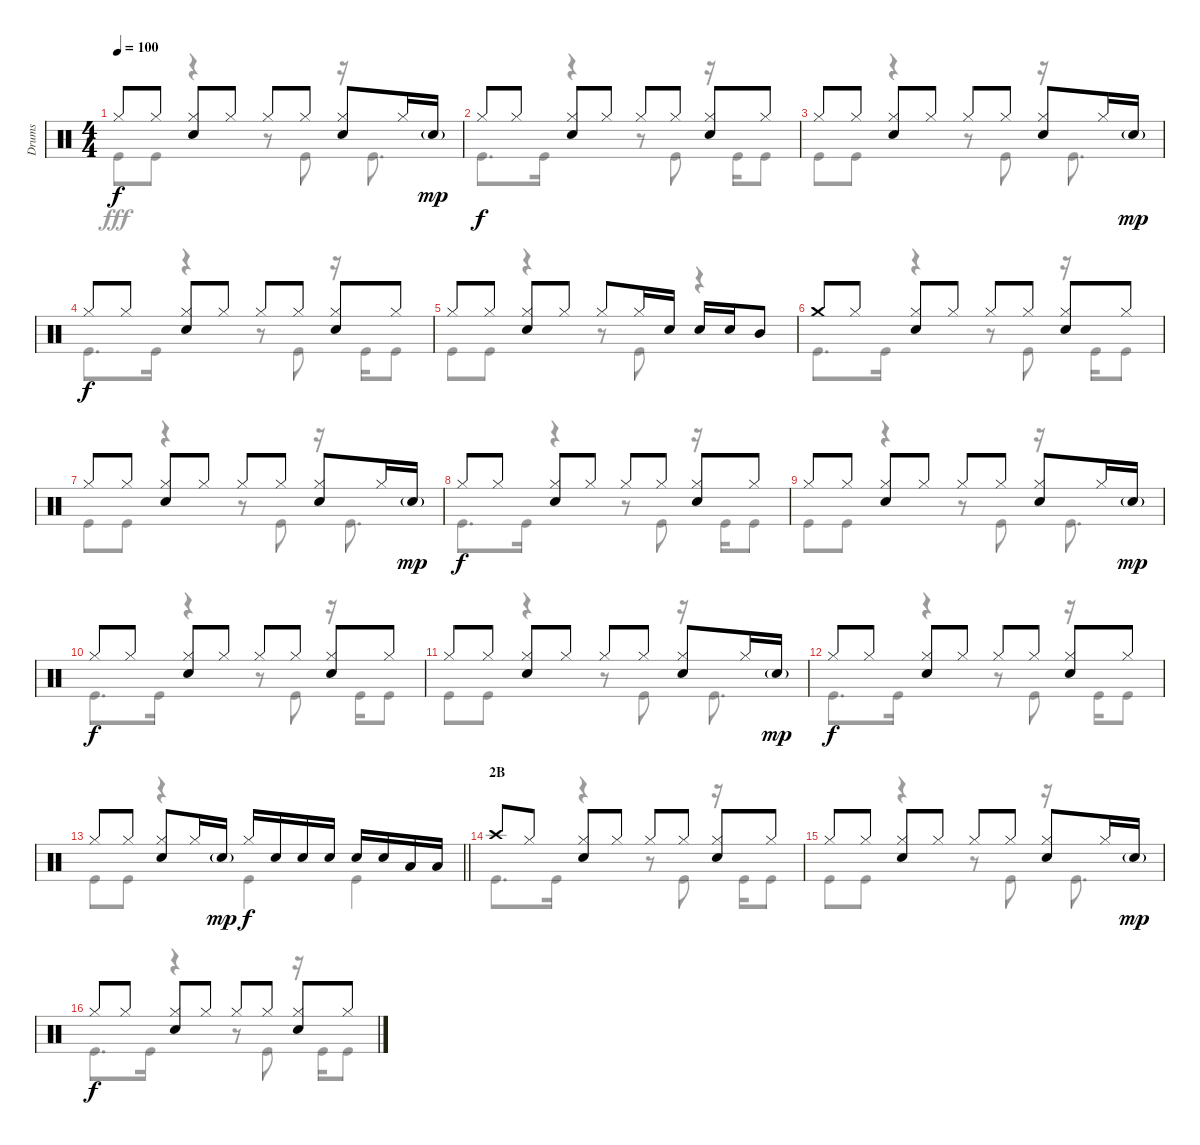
\track ("Drums" "Drums") {instrument percussion}
\staff {score}
\articulation defaults
\voice
\ts (4 4)
\tempo 100
\clef neutral
\ks c "Hi-Hat (closed)".8{dy f} "Hi-Hat (closed)".8
("Hi-Hat (closed)" "Snare (hit) 2").8 "Hi-Hat (closed)".8 "Hi-Hat (closed)".8 "Hi-Hat (closed)".8 ("Hi-Hat (closed)" "Snare (hit) 2").8 "Hi-Hat (closed)".16 "Snare (hit) 2"{g}.16{dy mp} |
"Hi-Hat (closed)".8{dy f} "Hi-Hat (closed)".8 ("Hi-Hat (closed)" "Snare (hit) 2").8 "Hi-Hat (closed)".8 "Hi-Hat (closed)".8 "Hi-Hat (closed)".8 ("Hi-Hat (closed)" "Snare (hit) 2").8 "Hi-Hat (closed)".8 |
"Hi-Hat (closed)".8 "Hi-Hat (closed)".8 ("Hi-Hat (closed)" "Snare (hit) 2").8 "Hi-Hat (closed)".8 "Hi-Hat (closed)".8 "Hi-Hat (closed)".8 ("Hi-Hat (closed)" "Snare (hit) 2").8 "Hi-Hat (closed)".16 "Snare (hit) 2"{g}.16{dy mp} |
"Hi-Hat (closed)".8{dy f} "Hi-Hat (closed)".8 ("Hi-Hat (closed)" "Snare (hit) 2").8 "Hi-Hat (closed)".8 "Hi-Hat (closed)".8 "Hi-Hat (closed)".8 ("Hi-Hat (closed)" "Snare (hit) 2").8 "Hi-Hat (closed)".8 |
"Hi-Hat (closed)".8 "Hi-Hat (closed)".8 ("Hi-Hat (closed)" "Snare (hit) 2").8 "Hi-Hat (closed)".8 "Hi-Hat (closed)".8 "Hi-Hat (closed)".16 "Snare (hit) 2".16 "Snare (hit) 2".16 "Snare (hit) 2".16 "Mid Tom (hit)".8 |
"Crash medium (hit)".8 "Hi-Hat (closed)".8 ("Hi-Hat (closed)" "Snare (hit) 2").8 "Hi-Hat (closed)".8 "Hi-Hat (closed)".8 "Hi-Hat (closed)".8 ("Hi-Hat (closed)" "Snare (hit) 2").8 "Hi-Hat (closed)".8 |
"Hi-Hat (closed)".8 "Hi-Hat (closed)".8 ("Hi-Hat (closed)" "Snare (hit) 2").8 "Hi-Hat (closed)".8 "Hi-Hat (closed)".8 "Hi-Hat (closed)".8 ("Hi-Hat (closed)" "Snare (hit) 2").8 "Hi-Hat (closed)".16 "Snare (hit) 2"{g}.16{dy mp} |
"Hi-Hat (closed)".8{dy f} "Hi-Hat (closed)".8 ("Hi-Hat (closed)" "Snare (hit) 2").8 "Hi-Hat (closed)".8 "Hi-Hat (closed)".8 "Hi-Hat (closed)".8 ("Hi-Hat (closed)" "Snare (hit) 2").8 "Hi-Hat (closed)".8 |
"Hi-Hat (closed)".8 "Hi-Hat (closed)".8 ("Hi-Hat (closed)" "Snare (hit) 2").8 "Hi-Hat (closed)".8 "Hi-Hat (closed)".8 "Hi-Hat (closed)".8 ("Hi-Hat (closed)" "Snare (hit) 2").8 "Hi-Hat (closed)".16 "Snare (hit) 2"{g}.16{dy mp} |
"Hi-Hat (closed)".8{dy f} "Hi-Hat (closed)".8 ("Hi-Hat (closed)" "Snare (hit) 2").8 "Hi-Hat (closed)".8 "Hi-Hat (closed)".8 "Hi-Hat (closed)".8 ("Hi-Hat (closed)" "Snare (hit) 2").8 "Hi-Hat (closed)".8 |
"Hi-Hat (closed)".8 "Hi-Hat (closed)".8 ("Hi-Hat (closed)" "Snare (hit) 2").8 "Hi-Hat (closed)".8 "Hi-Hat (closed)".8 "Hi-Hat (closed)".8 ("Hi-Hat (closed)" "Snare (hit) 2").8 "Hi-Hat (closed)".16 "Snare (hit) 2"{g}.16{dy mp} |
"Hi-Hat (closed)".8{dy f} "Hi-Hat (closed)".8 ("Hi-Hat (closed)" "Snare (hit) 2").8 "Hi-Hat (closed)".8 "Hi-Hat (closed)".8 "Hi-Hat (closed)".8 ("Hi-Hat (closed)" "Snare (hit) 2").8 "Hi-Hat (closed)".8 |
\barLineRight lightlight "Hi-Hat (closed)".8 "Hi-Hat (closed)".8
("Hi-Hat (closed)" "Snare (hit) 2").8 "Hi-Hat (closed)".16 "Snare (hit) 2"{g}.16{dy mp} "Hi-Hat (closed)".16{dy f} "Snare (hit) 2".16 "Snare (hit) 2".16 "Snare (hit) 2".16 "Snare (hit) 2".16 "Snare (hit) 2".16 "Low Tom (hit)".16 "Low Tom (hit)".16 |
\section ("" "2B")
"Crash high (hit)".8 "Hi-Hat (closed)".8 ("Hi-Hat (closed)" "Snare (hit) 2").8 "Hi-Hat (closed)".8 "Hi-Hat (closed)".8 "Hi-Hat (closed)".8 ("Hi-Hat (closed)" "Snare (hit) 2").8 "Hi-Hat (closed)".8 |
"Hi-Hat (closed)".8 "Hi-Hat (closed)".8 ("Hi-Hat (closed)" "Snare (hit) 2").8 "Hi-Hat (closed)".8 "Hi-Hat (closed)".8 "Hi-Hat (closed)".8 ("Hi-Hat (closed)" "Snare (hit) 2").8 "Hi-Hat (closed)".16 "Snare (hit) 2"{g}.16{dy mp} |
"Hi-Hat (closed)".8{dy f} "Hi-Hat (closed)".8 ("Hi-Hat (closed)" "Snare (hit) 2").8 "Hi-Hat (closed)".8 "Hi-Hat (closed)".8 "Hi-Hat (closed)".8 ("Hi-Hat (closed)" "Snare (hit) 2").8 "Hi-Hat (closed)".8
\voice
\clef neutral
\ottava regular
\simile none
\ks c "Kick (hit)".8{dy fff} "Kick (hit)".8
r.4 r.8 "Kick (hit)".8 r.16 "Kick (hit)".8{d} |
"Kick (hit)".8{d} "Kick (hit)".16 r.4 r.8 "Kick (hit)".8 r.16 "Kick (hit)".16 "Kick (hit)".8 |
"Kick (hit)".8 "Kick (hit)".8 r.4 r.8 "Kick (hit)".8 r.16 "Kick (hit)".8{d} |
"Kick (hit)".8{d} "Kick (hit)".16 r.4 r.8 "Kick (hit)".8 r.16 "Kick (hit)".16 "Kick (hit)".8 |
"Kick (hit)".8 "Kick (hit)".8 r.4 r.8 "Kick (hit)".8 r.4 |
"Kick (hit)".8{d} "Kick (hit)".16 r.4 r.8 "Kick (hit)".8 r.16 "Kick (hit)".16 "Kick (hit)".8 |
"Kick (hit)".8 "Kick (hit)".8 r.4 r.8 "Kick (hit)".8 r.16 "Kick (hit)".8{d} |
"Kick (hit)".8{d} "Kick (hit)".16 r.4 r.8 "Kick (hit)".8 r.16 "Kick (hit)".16 "Kick (hit)".8 |
"Kick (hit)".8 "Kick (hit)".8 r.4 r.8 "Kick (hit)".8 r.16 "Kick (hit)".8{d} |
"Kick (hit)".8{d} "Kick (hit)".16 r.4 r.8 "Kick (hit)".8 r.16 "Kick (hit)".16 "Kick (hit)".8 |
"Kick (hit)".8 "Kick (hit)".8 r.4 r.8 "Kick (hit)".8 r.16 "Kick (hit)".8{d} |
"Kick (hit)".8{d} "Kick (hit)".16 r.4 r.8 "Kick (hit)".8 r.16 "Kick (hit)".16 "Kick (hit)".8 |
\barLineRight lightlight "Kick (hit)".8 "Kick (hit)".8
r.4 "Kick (hit)".4 "Kick (hit)".4 |
"Kick (hit)".8{d} "Kick (hit)".16 r.4 r.8 "Kick (hit)".8 r.16 "Kick (hit)".16 "Kick (hit)".8 |
"Kick (hit)".8 "Kick (hit)".8 r.4 r.8 "Kick (hit)".8 r.16 "Kick (hit)".8{d} |
"Kick (hit)".8{d} "Kick (hit)".16 r.4 r.8 "Kick (hit)".8 r.16 "Kick (hit)".16 "Kick (hit)".8
